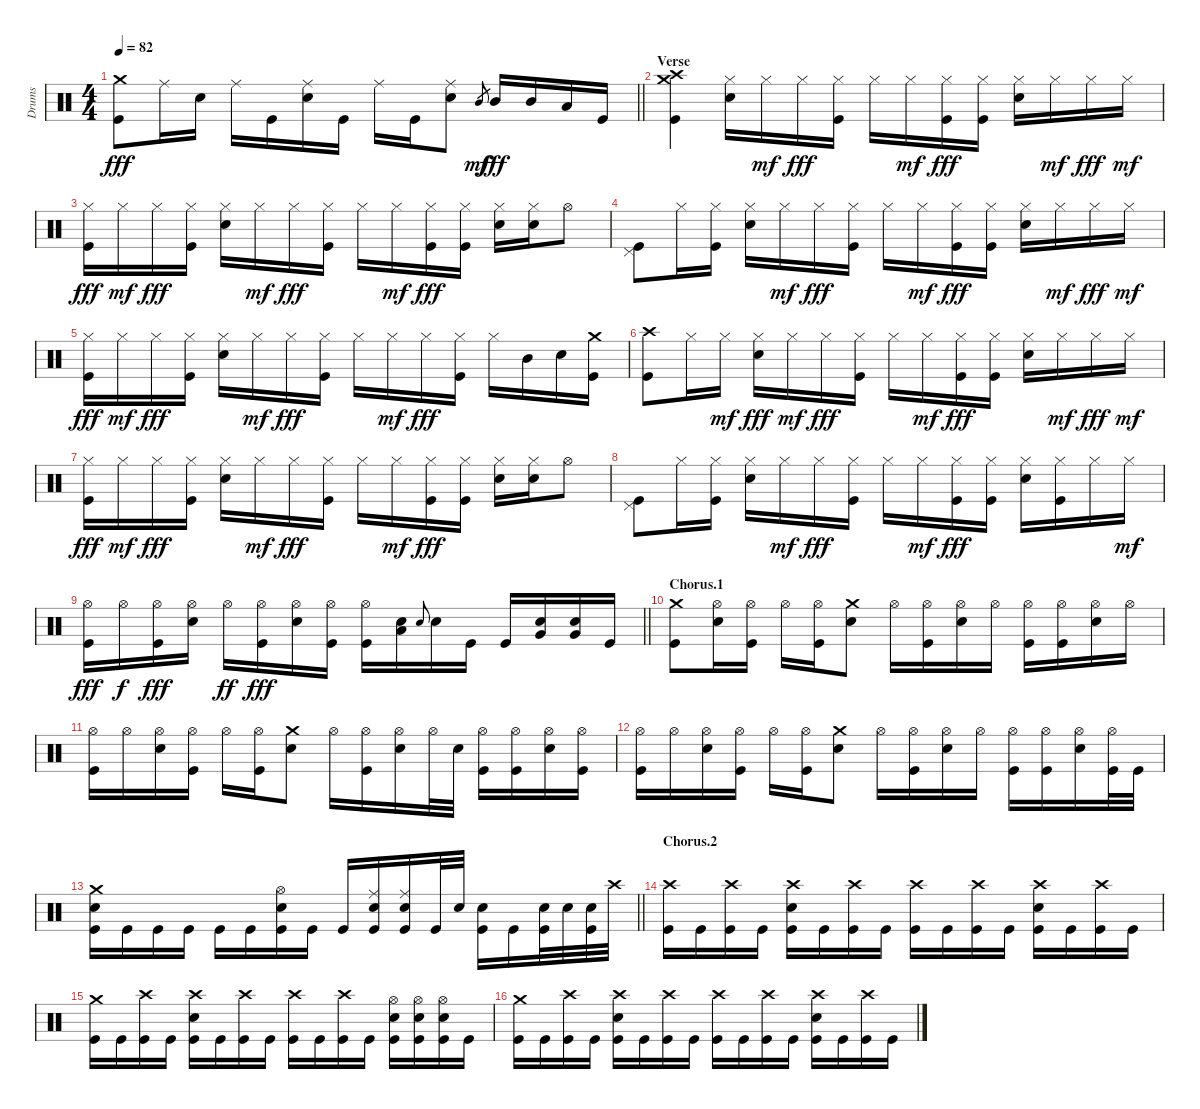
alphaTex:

\track ("Drums" "Drums") {instrument percussion}
\staff {score}
\articulation defaults
\ts (4 4)
\tempo 82
\clef neutral
\barLineRight lightlight
\ks c
("Crash medium (hit)" "Kick (hit)").8{dy fff} "Ride (middle)".16 "Snare (hit) 2".16 "Ride (middle)".16 "Kick (hit)".16 ("Ride (middle)" "Snare (hit) 2").16 "Kick (hit)".16 "Ride (middle)".16 "Kick (hit)".16 ("Ride (middle)" "Snare (hit) 2").8 "Mid Tom (hit)".8{gr dy mf} "Mid Tom (hit)".16{dy fff} "Mid Tom (hit)".16 "Low Tom (hit)".16 "Kick (hit)".16 |
\section ("" "Verse")
("Crash medium (hit)" "Crash high (hit)" "Kick (hit)").4 ("Hi-Hat (closed)" "Snare (hit) 2").16 "Hi-Hat (closed)".16{dy mf} "Hi-Hat (closed)".16{dy fff} ("Hi-Hat (closed)" "Kick (hit)").16 "Hi-Hat (closed)".16 "Hi-Hat (closed)".16{dy mf} ("Hi-Hat (closed)" "Kick (hit)").16{dy fff} ("Hi-Hat (closed)" "Kick (hit)").16 ("Hi-Hat (closed)" "Snare (hit) 2").16 "Hi-Hat (closed)".16{dy mf} "Hi-Hat (closed)".16{dy fff} "Hi-Hat (closed)".16{dy mf} |
("Hi-Hat (closed)" "Kick (hit)").16{dy fff} "Hi-Hat (closed)".16{dy mf} "Hi-Hat (closed)".16{dy fff} ("Hi-Hat (closed)" "Kick (hit)").16 ("Hi-Hat (closed)" "Snare (hit) 2").16 "Hi-Hat (closed)".16{dy mf} "Hi-Hat (closed)".16{dy fff} ("Hi-Hat (closed)" "Kick (hit)").16 "Hi-Hat (closed)".16 "Hi-Hat (closed)".16{dy mf} ("Hi-Hat (closed)" "Kick (hit)").16{dy fff} ("Hi-Hat (closed)" "Kick (hit)").16 ("Hi-Hat (closed)" "Snare (hit) 2").16 ("Hi-Hat (closed)" "Snare (hit) 2").16 "Hi-Hat (open)".8 |
("Pedal Hi-Hat (hit)" "Kick (hit)").8 "Hi-Hat (closed)".16 ("Hi-Hat (closed)" "Kick (hit)").16 ("Hi-Hat (closed)" "Snare (hit) 2").16 "Hi-Hat (closed)".16{dy mf} "Hi-Hat (closed)".16{dy fff} ("Hi-Hat (closed)" "Kick (hit)").16 "Hi-Hat (closed)".16 "Hi-Hat (closed)".16{dy mf} ("Hi-Hat (closed)" "Kick (hit)").16{dy fff} ("Hi-Hat (closed)" "Kick (hit)").16 ("Hi-Hat (closed)" "Snare (hit) 2").16 "Hi-Hat (closed)".16{dy mf} "Hi-Hat (closed)".16{dy fff} "Hi-Hat (closed)".16{dy mf} |
("Hi-Hat (closed)" "Kick (hit)").16{dy fff} "Hi-Hat (closed)".16{dy mf} "Hi-Hat (closed)".16{dy fff} ("Hi-Hat (closed)" "Kick (hit)").16 ("Hi-Hat (closed)" "Snare (hit) 2").16 "Hi-Hat (closed)".16{dy mf} "Hi-Hat (closed)".16{dy fff} ("Hi-Hat (closed)" "Kick (hit)").16 "Hi-Hat (closed)".16 "Hi-Hat (closed)".16{dy mf} "Hi-Hat (closed)".16{dy fff} ("Hi-Hat (closed)" "Kick (hit)").16 "Hi-Hat (closed)".16 "Mid Tom (hit)".16 "Snare (hit) 2".16 ("Crash medium (hit)" "Kick (hit)").16 |
("Crash high (hit)" "Kick (hit)").8 "Hi-Hat (closed)".16 "Hi-Hat (closed)".16{dy mf} ("Hi-Hat (closed)" "Snare (hit) 2").16{dy fff} "Hi-Hat (closed)".16{dy mf} "Hi-Hat (closed)".16{dy fff} ("Hi-Hat (closed)" "Kick (hit)").16 "Hi-Hat (closed)".16 "Hi-Hat (closed)".16{dy mf} ("Hi-Hat (closed)" "Kick (hit)").16{dy fff} ("Hi-Hat (closed)" "Kick (hit)").16 ("Hi-Hat (closed)" "Snare (hit) 2").16 "Hi-Hat (closed)".16{dy mf} "Hi-Hat (closed)".16{dy fff} "Hi-Hat (closed)".16{dy mf} |
("Hi-Hat (closed)" "Kick (hit)").16{dy fff} "Hi-Hat (closed)".16{dy mf} "Hi-Hat (closed)".16{dy fff} ("Hi-Hat (closed)" "Kick (hit)").16 ("Hi-Hat (closed)" "Snare (hit) 2").16 "Hi-Hat (closed)".16{dy mf} "Hi-Hat (closed)".16{dy fff} ("Hi-Hat (closed)" "Kick (hit)").16 "Hi-Hat (closed)".16 "Hi-Hat (closed)".16{dy mf} ("Hi-Hat (closed)" "Kick (hit)").16{dy fff} ("Hi-Hat (closed)" "Kick (hit)").16 ("Hi-Hat (closed)" "Snare (hit) 2").16 ("Hi-Hat (closed)" "Snare (hit) 2").16 "Hi-Hat (open)".8 |
("Pedal Hi-Hat (hit)" "Kick (hit)").8 "Hi-Hat (closed)".16 ("Hi-Hat (closed)" "Kick (hit)").16 ("Hi-Hat (closed)" "Snare (hit) 2").16 "Hi-Hat (closed)".16{dy mf} "Hi-Hat (closed)".16{dy fff} ("Hi-Hat (closed)" "Kick (hit)").16 "Hi-Hat (closed)".16 "Hi-Hat (closed)".16{dy mf} ("Hi-Hat (closed)" "Kick (hit)").16{dy fff} ("Hi-Hat (closed)" "Kick (hit)").16 ("Hi-Hat (closed)" "Snare (hit) 2").16 ("Hi-Hat (closed)" "Kick (hit)").16 "Hi-Hat (closed)".16 "Hi-Hat (closed)".16{dy mf} |
\barLineRight lightlight
("Hi-Hat (open)" "Kick (hit)").16{dy fff} "Hi-Hat (open)".16{dy f} ("Hi-Hat (open)" "Kick (hit)").16{dy fff} ("Hi-Hat (open)" "Snare (hit) 2").16 "Hi-Hat (open)".16{dy ff} ("Hi-Hat (open)" "Kick (hit)").16{dy fff} ("Hi-Hat (open)" "Snare (hit) 2").16 ("Hi-Hat (open)" "Kick (hit)").16 ("Hi-Hat (open)" "Kick (hit)").16 ("Low Floor Tom (hit)" "Snare (hit) 2").16 "Snare (hit) 2".8{gr onbeat} "Snare (hit) 2".16 "Kick (hit)".16 "Kick (hit)".16 ("Very Low Tom (hit)" "Snare (hit) 2").16 ("Very Low Tom (hit)" "Snare (hit) 2").16 "Kick (hit)".16 |
\section ("" "Chorus.1")
("Crash medium (hit)" "Kick (hit)").8 ("Hi-Hat (open)" "Snare (hit) 2").16 ("Hi-Hat (open)" "Kick (hit)").16 "Hi-Hat (open)".16 ("Hi-Hat (open)" "Kick (hit)").16 ("Crash medium (hit)" "Snare (hit) 2").8 "Hi-Hat (open)".16 ("Hi-Hat (open)" "Kick (hit)").16 ("Hi-Hat (open)" "Snare (hit) 2").16 "Hi-Hat (open)".16 ("Hi-Hat (open)" "Kick (hit)").16 ("Hi-Hat (open)" "Kick (hit)").16 ("Hi-Hat (open)" "Snare (hit) 2").16 "Hi-Hat (open)".16 |
("Hi-Hat (open)" "Kick (hit)").16 "Hi-Hat (open)".16 ("Hi-Hat (open)" "Snare (hit) 2").16 ("Hi-Hat (open)" "Kick (hit)").16 "Hi-Hat (open)".16 ("Hi-Hat (open)" "Kick (hit)").16 ("Crash medium (hit)" "Snare (hit) 2").8 "Hi-Hat (open)".16 ("Hi-Hat (open)" "Kick (hit)").16 ("Hi-Hat (open)" "Snare (hit) 2").16 "Hi-Hat (open)".32 "Snare (hit) 2".32 ("Hi-Hat (open)" "Kick (hit)").16 ("Hi-Hat (open)" "Kick (hit)").16 ("Hi-Hat (open)" "Snare (hit) 2").16 ("Hi-Hat (open)" "Kick (hit)").16 |
("Hi-Hat (open)" "Kick (hit)").16 "Hi-Hat (open)".16 ("Hi-Hat (open)" "Snare (hit) 2").16 ("Hi-Hat (open)" "Kick (hit)").16 "Hi-Hat (open)".16 ("Hi-Hat (open)" "Kick (hit)").16 ("Crash medium (hit)" "Snare (hit) 2").8 "Hi-Hat (open)".16 ("Hi-Hat (open)" "Kick (hit)").16 ("Hi-Hat (open)" "Snare (hit) 2").16 "Hi-Hat (open)".16 ("Hi-Hat (open)" "Kick (hit)").16 ("Hi-Hat (open)" "Kick (hit)").16 ("Hi-Hat (open)" "Snare (hit) 2").16 ("Hi-Hat (open)" "Kick (hit)").32 "Kick (hit)".32 |
\barLineRight lightlight
("Crash medium (hit)" "Snare (hit) 2" "Kick (hit)").16 "Kick (hit)".16 "Kick (hit)".16 "Kick (hit)".16 "Kick (hit)".16 "Kick (hit)".16 ("Hi-Hat (open)" "Snare (hit) 2" "Kick (hit)").16 "Kick (hit)".16 "Kick (hit)".16 ("Ride (middle)" "Snare (hit) 2" "Kick (hit)").16 ("Ride (middle)" "Snare (hit) 2" "Kick (hit)").16 "Kick (hit)".32 "Snare (hit) 2".32 ("Snare (hit) 2" "Kick (hit)").16 "Kick (hit)".16 ("Snare (hit) 2" "Kick (hit)").32 "Snare (hit) 2".32 ("Snare (hit) 2" "Kick (hit)").32 "Crash high (hit)".32 |
\section ("" "Chorus.2")
("Crash high (hit)" "Kick (hit)").16 "Kick (hit)".16 ("Crash high (hit)" "Kick (hit)").16 "Kick (hit)".16 ("Crash high (hit)" "Snare (hit) 2" "Kick (hit)").16 "Kick (hit)".16 ("Crash high (hit)" "Kick (hit)").16 "Kick (hit)".16 ("Crash high (hit)" "Kick (hit)").16 "Kick (hit)".16 ("Crash high (hit)" "Kick (hit)").16 "Kick (hit)".16 ("Crash high (hit)" "Snare (hit) 2" "Kick (hit)").16 "Kick (hit)".16 ("Crash high (hit)" "Kick (hit)").16 "Kick (hit)".16 |
("Crash medium (hit)" "Kick (hit)").16 "Kick (hit)".16 ("Crash high (hit)" "Kick (hit)").16 "Kick (hit)".16 ("Crash high (hit)" "Snare (hit) 2" "Kick (hit)").16 "Kick (hit)".16 ("Crash high (hit)" "Kick (hit)").16 "Kick (hit)".16 ("Crash high (hit)" "Kick (hit)").16 "Kick (hit)".16 ("Crash high (hit)" "Kick (hit)").16 "Kick (hit)".16 ("Hi-Hat (open)" "Snare (hit) 2" "Kick (hit)").16 ("Hi-Hat (open)" "Snare (hit) 2" "Kick (hit)").16 ("Hi-Hat (open)" "Snare (hit) 2" "Kick (hit)").16 "Kick (hit)".16 |
("Crash medium (hit)" "Kick (hit)").16 "Kick (hit)".16 ("Crash high (hit)" "Kick (hit)").16 "Kick (hit)".16 ("Crash high (hit)" "Snare (hit) 2" "Kick (hit)").16 "Kick (hit)".16 ("Crash high (hit)" "Kick (hit)").16 "Kick (hit)".16 ("Crash high (hit)" "Kick (hit)").16 "Kick (hit)".16 ("Crash high (hit)" "Kick (hit)").16 "Kick (hit)".16 ("Crash high (hit)" "Snare (hit) 2" "Kick (hit)").16 "Kick (hit)".16 ("Crash high (hit)" "Kick (hit)").16 "Kick (hit)".16
